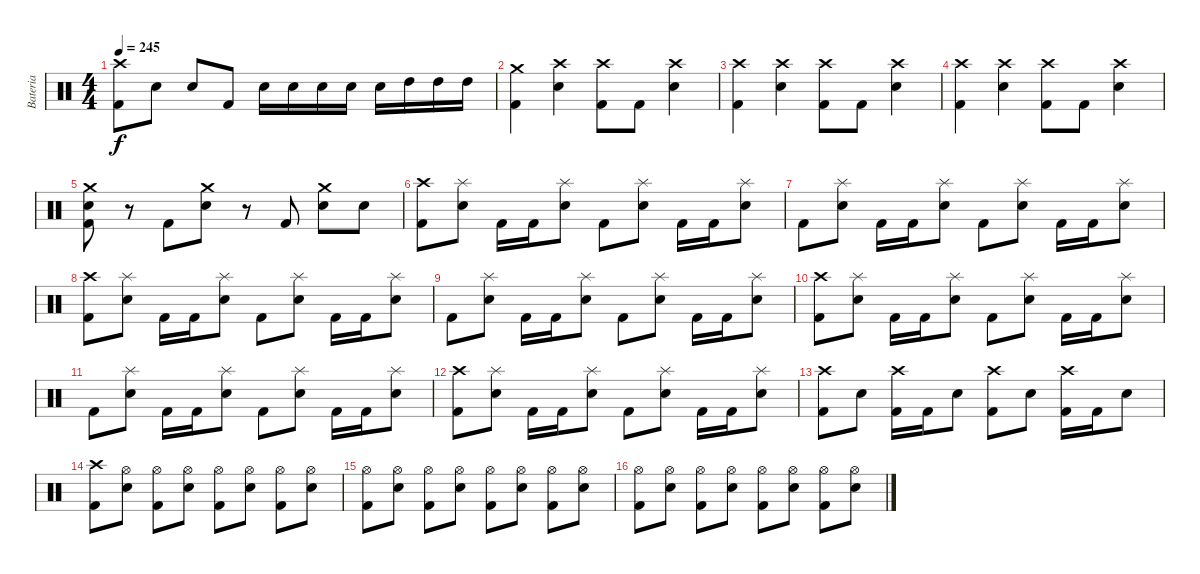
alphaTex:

\track ("Bateria" "Bateria") {instrument percussion}
\staff {score}
\articulation defaults
\ts (4 4)
\tempo 245
\clef neutral
\ks c
("Crash high (hit)" "Kick (hit) 2").8{dy f} "Electric Snare (hit)".8 "Electric Snare (hit)".8 "Kick (hit) 2".8 "Electric Snare (hit)".16 "Electric Snare (hit)".16 "Electric Snare (hit)".16 "Electric Snare (hit)".16 "Electric Snare (hit)".16 "High Tom (hit)".16 "High Tom (hit)".16 "High Tom (hit)".16 |
("Crash medium (hit)" "Kick (hit) 2").4 ("Crash high (hit)" "Electric Snare (hit)").4 ("Crash high (hit)" "Kick (hit) 2").8 "Kick (hit) 2".8 ("Crash high (hit)" "Electric Snare (hit)").4 |
("Crash high (hit)" "Kick (hit) 2").4 ("Crash high (hit)" "Electric Snare (hit)").4 ("Crash high (hit)" "Kick (hit) 2").8 "Kick (hit) 2".8 ("Crash high (hit)" "Electric Snare (hit)").4 |
("Crash high (hit)" "Kick (hit) 2").4 ("Crash high (hit)" "Electric Snare (hit)").4 ("Crash high (hit)" "Kick (hit) 2").8 "Kick (hit) 2".8 ("Crash high (hit)" "Electric Snare (hit)").4 |
("Crash medium (hit)" "Electric Snare (hit)" "Kick (hit) 2").8 r.8 "Kick (hit) 2".8 ("Crash medium (hit)" "Electric Snare (hit)").8 r.8 "Kick (hit) 2".8 ("Crash medium (hit)" "Electric Snare (hit)").8 "Electric Snare (hit)".8 |
("Crash high (hit)" "Kick (hit) 2").8 ("Splash (hit)" "Electric Snare (hit)").8 "Kick (hit) 2".16 "Kick (hit) 2".16 ("Splash (hit)" "Electric Snare (hit)").8 "Kick (hit) 2".8 ("Splash (hit)" "Electric Snare (hit)").8 "Kick (hit) 2".16 "Kick (hit) 2".16 ("Splash (hit)" "Electric Snare (hit)").8 |
"Kick (hit) 2".8 ("Splash (hit)" "Electric Snare (hit)").8 "Kick (hit) 2".16 "Kick (hit) 2".16 ("Splash (hit)" "Electric Snare (hit)").8 "Kick (hit) 2".8 ("Splash (hit)" "Electric Snare (hit)").8 "Kick (hit) 2".16 "Kick (hit) 2".16 ("Splash (hit)" "Electric Snare (hit)").8 |
("Crash high (hit)" "Kick (hit) 2").8 ("Splash (hit)" "Electric Snare (hit)").8 "Kick (hit) 2".16 "Kick (hit) 2".16 ("Splash (hit)" "Electric Snare (hit)").8 "Kick (hit) 2".8 ("Splash (hit)" "Electric Snare (hit)").8 "Kick (hit) 2".16 "Kick (hit) 2".16 ("Splash (hit)" "Electric Snare (hit)").8 |
"Kick (hit) 2".8 ("Splash (hit)" "Electric Snare (hit)").8 "Kick (hit) 2".16 "Kick (hit) 2".16 ("Splash (hit)" "Electric Snare (hit)").8 "Kick (hit) 2".8 ("Splash (hit)" "Electric Snare (hit)").8 "Kick (hit) 2".16 "Kick (hit) 2".16 ("Splash (hit)" "Electric Snare (hit)").8 |
("Crash high (hit)" "Kick (hit) 2").8 ("Splash (hit)" "Electric Snare (hit)").8 "Kick (hit) 2".16 "Kick (hit) 2".16 ("Splash (hit)" "Electric Snare (hit)").8 "Kick (hit) 2".8 ("Splash (hit)" "Electric Snare (hit)").8 "Kick (hit) 2".16 "Kick (hit) 2".16 ("Splash (hit)" "Electric Snare (hit)").8 |
"Kick (hit) 2".8 ("Splash (hit)" "Electric Snare (hit)").8 "Kick (hit) 2".16 "Kick (hit) 2".16 ("Splash (hit)" "Electric Snare (hit)").8 "Kick (hit) 2".8 ("Splash (hit)" "Electric Snare (hit)").8 "Kick (hit) 2".16 "Kick (hit) 2".16 ("Splash (hit)" "Electric Snare (hit)").8 |
("Crash high (hit)" "Kick (hit) 2").8 ("Splash (hit)" "Electric Snare (hit)").8 "Kick (hit) 2".16 "Kick (hit) 2".16 ("Splash (hit)" "Electric Snare (hit)").8 "Kick (hit) 2".8 ("Splash (hit)" "Electric Snare (hit)").8 "Kick (hit) 2".16 "Kick (hit) 2".16 ("Splash (hit)" "Electric Snare (hit)").8 |
("Crash high (hit)" "Kick (hit) 2").8 "Electric Snare (hit)".8 ("Crash high (hit)" "Kick (hit) 2").16 "Kick (hit) 2".16 "Electric Snare (hit)".8 ("Crash high (hit)" "Kick (hit) 2").8 "Electric Snare (hit)".8 ("Crash high (hit)" "Kick (hit) 2").16 "Kick (hit) 2".16 "Electric Snare (hit)".8 |
("Crash high (hit)" "Kick (hit) 2").8 ("Hi-Hat (open)" "Electric Snare (hit)").8 ("Hi-Hat (open)" "Kick (hit) 2").8 ("Hi-Hat (open)" "Electric Snare (hit)").8 ("Hi-Hat (open)" "Kick (hit) 2").8 ("Hi-Hat (open)" "Electric Snare (hit)").8 ("Hi-Hat (open)" "Kick (hit) 2").8 ("Hi-Hat (open)" "Electric Snare (hit)").8 |
("Hi-Hat (open)" "Kick (hit) 2").8 ("Hi-Hat (open)" "Electric Snare (hit)").8 ("Hi-Hat (open)" "Kick (hit) 2").8 ("Hi-Hat (open)" "Electric Snare (hit)").8 ("Hi-Hat (open)" "Kick (hit) 2").8 ("Hi-Hat (open)" "Electric Snare (hit)").8 ("Hi-Hat (open)" "Kick (hit) 2").8 ("Hi-Hat (open)" "Electric Snare (hit)").8 |
("Hi-Hat (open)" "Kick (hit) 2").8 ("Hi-Hat (open)" "Electric Snare (hit)").8 ("Hi-Hat (open)" "Kick (hit) 2").8 ("Hi-Hat (open)" "Electric Snare (hit)").8 ("Hi-Hat (open)" "Kick (hit) 2").8 ("Hi-Hat (open)" "Electric Snare (hit)").8 ("Hi-Hat (open)" "Kick (hit) 2").8 ("Hi-Hat (open)" "Electric Snare (hit)").8
